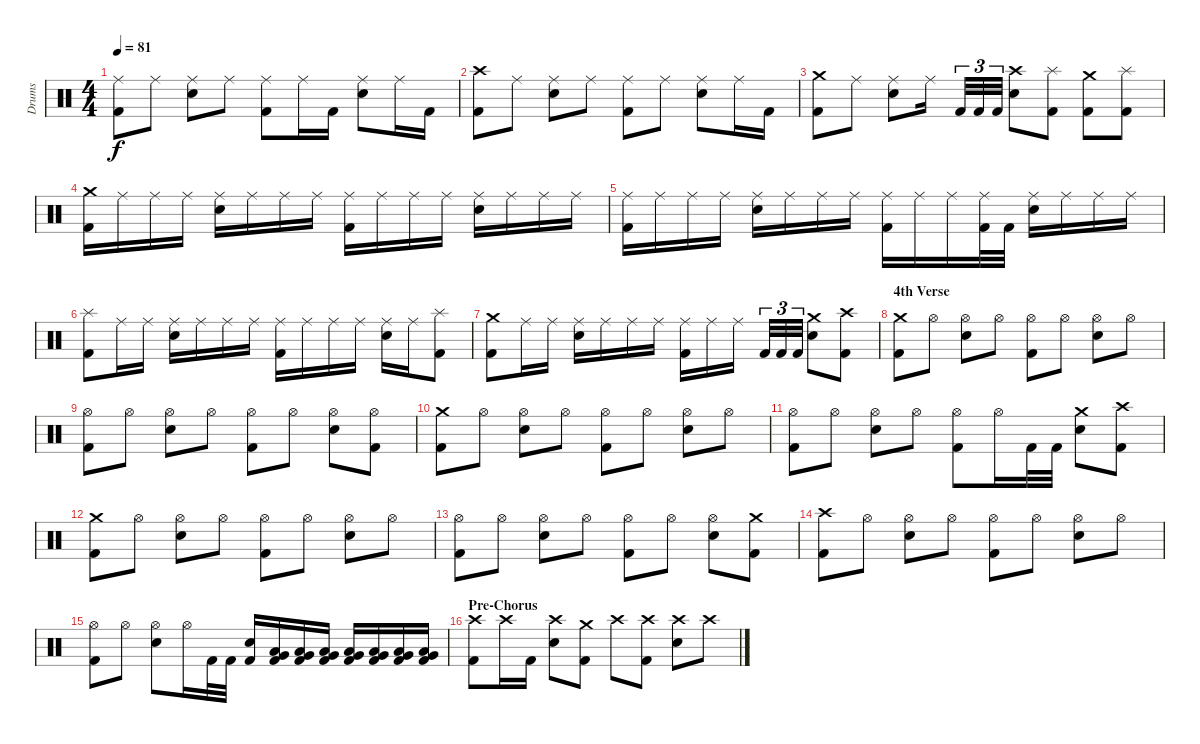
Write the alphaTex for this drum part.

\track ("Drums" "Drums") {instrument percussion}
\staff {score}
\articulation defaults
\ts (4 4)
\tempo 81
\clef neutral
\ks c
("Ride (middle)" "Kick (hit) 2").8{dy f} "Ride (middle)".8 ("Ride (middle)" "Electric Snare (hit)").8 "Ride (middle)".8 ("Ride (middle)" "Kick (hit) 2").8 "Ride (middle)".16 "Kick (hit) 2".16 ("Ride (middle)" "Electric Snare (hit)").8 "Ride (middle)".16 "Kick (hit) 2".16 |
("Crash high (hit)" "Kick (hit) 2").8 "Ride (middle)".8 ("Ride (middle)" "Electric Snare (hit)").8 "Ride (middle)".8 ("Ride (middle)" "Kick (hit) 2").8 "Ride (middle)".8 ("Ride (middle)" "Electric Snare (hit)").8 "Ride (middle)".16 "Kick (hit) 2".16 |
("Crash medium (hit)" "Kick (hit) 2").8 "Ride (middle)".8 ("Ride (middle)" "Electric Snare (hit)").8 "Ride (middle)".16 "Kick (hit) 2".32{tu (3 2)} "Kick (hit) 2".32{tu (3 2)} "Kick (hit) 2".32{tu (3 2)} ("Crash high (hit)" "Electric Snare (hit)").8 ("Splash (hit)" "Kick (hit) 2").8 ("Crash medium (hit)" "Kick (hit) 2").8 ("Splash (hit)" "Kick (hit) 2").8 |
("Crash medium (hit)" "Kick (hit) 2").16 "Ride (middle)".16 "Ride (middle)".16 "Ride (middle)".16 ("Ride (middle)" "Electric Snare (hit)").16 "Ride (middle)".16 "Ride (middle)".16 "Ride (middle)".16 ("Ride (middle)" "Kick (hit) 2").16 "Ride (middle)".16 "Ride (middle)".16 "Ride (middle)".16 ("Ride (middle)" "Electric Snare (hit)").16 "Ride (middle)".16 "Ride (middle)".16 "Ride (middle)".16 |
("Ride (middle)" "Kick (hit) 2").16 "Ride (middle)".16 "Ride (middle)".16 "Ride (middle)".16 ("Ride (middle)" "Electric Snare (hit)").16 "Ride (middle)".16 "Ride (middle)".16 "Ride (middle)".16 ("Ride (middle)" "Kick (hit) 2").16 "Ride (middle)".16 "Ride (middle)".16 ("Ride (middle)" "Kick (hit) 2").32 "Kick (hit) 2".32 ("Ride (middle)" "Electric Snare (hit)").16 "Ride (middle)".16 "Ride (middle)".16 "Ride (middle)".16 |
("Splash (hit)" "Kick (hit) 2").8 "Ride (middle)".16 "Ride (middle)".16 ("Ride (middle)" "Electric Snare (hit)").16 "Ride (middle)".16 "Ride (middle)".16 "Ride (middle)".16 ("Ride (middle)" "Kick (hit) 2").16 "Ride (middle)".16 "Ride (middle)".16 "Ride (middle)".16 ("Ride (middle)" "Electric Snare (hit)").16 "Ride (middle)".16 ("Splash (hit)" "Kick (hit) 2").8 |
("Crash medium (hit)" "Kick (hit) 2").8 "Ride (middle)".16 "Ride (middle)".16 ("Ride (middle)" "Electric Snare (hit)").16 "Ride (middle)".16 "Ride (middle)".16 "Ride (middle)".16 ("Ride (middle)" "Kick (hit) 2").16 "Ride (middle)".16 "Ride (middle)".16 "Kick (hit) 2".32{tu (3 2)} "Kick (hit) 2".32{tu (3 2)} "Kick (hit) 2".32{tu (3 2)} ("Crash medium (hit)" "Electric Snare (hit)").8 ("Crash high (hit)" "Kick (hit) 2").8 |
\section ("" "4th Verse")
("Crash medium (hit)" "Kick (hit) 2").8 "Hi-Hat (open)".8 ("Hi-Hat (open)" "Electric Snare (hit)").8 "Hi-Hat (open)".8 ("Hi-Hat (open)" "Kick (hit) 2").8 "Hi-Hat (open)".8 ("Hi-Hat (open)" "Electric Snare (hit)").8 "Hi-Hat (open)".8 |
("Hi-Hat (open)" "Kick (hit) 2").8 "Hi-Hat (open)".8 ("Hi-Hat (open)" "Electric Snare (hit)").8 "Hi-Hat (open)".8 ("Hi-Hat (open)" "Kick (hit) 2").8 "Hi-Hat (open)".8 ("Hi-Hat (open)" "Electric Snare (hit)").8 ("Hi-Hat (open)" "Kick (hit) 2").8 |
("Crash medium (hit)" "Kick (hit) 2").8 "Hi-Hat (open)".8 ("Hi-Hat (open)" "Electric Snare (hit)").8 "Hi-Hat (open)".8 ("Hi-Hat (open)" "Kick (hit) 2").8 "Hi-Hat (open)".8 ("Hi-Hat (open)" "Electric Snare (hit)").8 "Hi-Hat (open)".8 |
("Hi-Hat (open)" "Kick (hit) 2").8 "Hi-Hat (open)".8 ("Hi-Hat (open)" "Electric Snare (hit)").8 "Hi-Hat (open)".8 ("Hi-Hat (open)" "Kick (hit) 2").8 "Hi-Hat (open)".16 "Kick (hit) 2".32 "Kick (hit) 2".32 ("Crash medium (hit)" "Electric Snare (hit)").8 ("Crash high (hit)" "Kick (hit) 2").8 |
("Crash medium (hit)" "Kick (hit) 2").8 "Hi-Hat (open)".8 ("Hi-Hat (open)" "Electric Snare (hit)").8 "Hi-Hat (open)".8 ("Hi-Hat (open)" "Kick (hit) 2").8 "Hi-Hat (open)".8 ("Hi-Hat (open)" "Electric Snare (hit)").8 "Hi-Hat (open)".8 |
("Hi-Hat (open)" "Kick (hit) 2").8 "Hi-Hat (open)".8 ("Hi-Hat (open)" "Electric Snare (hit)").8 "Hi-Hat (open)".8 ("Hi-Hat (open)" "Kick (hit) 2").8 "Hi-Hat (open)".8 ("Hi-Hat (open)" "Electric Snare (hit)").8 ("Crash medium (hit)" "Kick (hit) 2").8 |
("Crash high (hit)" "Kick (hit) 2").8 "Hi-Hat (open)".8 ("Hi-Hat (open)" "Electric Snare (hit)").8 "Hi-Hat (open)".8 ("Hi-Hat (open)" "Kick (hit) 2").8 "Hi-Hat (open)".8 ("Hi-Hat (open)" "Electric Snare (hit)").8 "Hi-Hat (open)".8 |
("Hi-Hat (open)" "Kick (hit) 2").8 "Hi-Hat (open)".8 ("Hi-Hat (open)" "Electric Snare (hit)").8 "Hi-Hat (open)".16 "Kick (hit) 2".32 "Kick (hit) 2".32 ("Electric Snare (hit)" "Kick (hit) 2").16 ("Very Low Tom (hit)" "Low Tom (hit)" "Kick (hit) 2").16 ("Very Low Tom (hit)" "Low Tom (hit)" "Kick (hit) 2").16 ("Very Low Tom (hit)" "Low Tom (hit)" "Kick (hit) 2").16 ("Very Low Tom (hit)" "Low Tom (hit)" "Kick (hit) 2").16 ("Very Low Tom (hit)" "Low Tom (hit)" "Kick (hit) 2").16 ("Very Low Tom (hit)" "Low Tom (hit)" "Kick (hit) 2").16 ("Very Low Tom (hit)" "Low Tom (hit)" "Kick (hit) 2").16 |
\section ("" "Pre-Chorus")
("Crash high (hit)" "Kick (hit) 2").8 "Crash high (hit)".16 "Kick (hit) 2".16 ("Crash high (hit)" "Electric Snare (hit)").8 ("Crash medium (hit)" "Kick (hit) 2").8 "Crash high (hit)".8 ("Crash high (hit)" "Kick (hit) 2").8 ("Crash high (hit)" "Electric Snare (hit)").8 "Crash high (hit)".8
